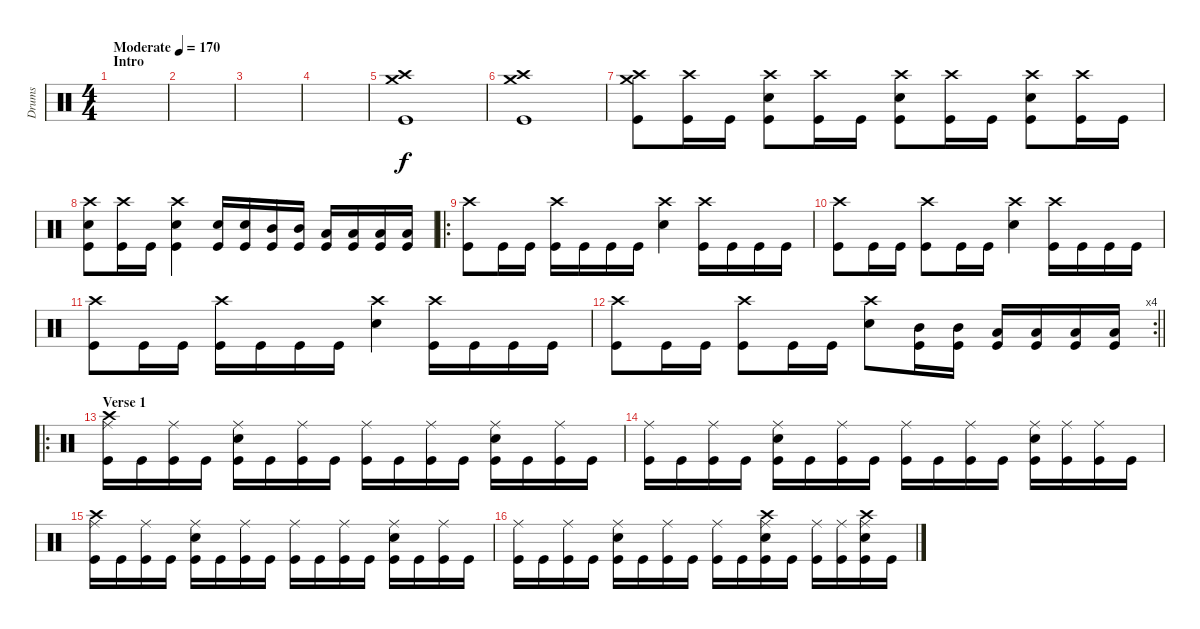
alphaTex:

\track ("Drums" "Drums") {instrument percussion}
\staff {score}
\articulation defaults
\ts (4 4)
\section ("" "Intro")
\tempo (170 "Moderate")
\clef neutral
\ks c
|
|
|
|
("Crash high (hit)" "Crash medium (hit)" "Kick (hit)").1 |
("Crash high (hit)" "Crash medium (hit)" "Kick (hit)").1 |
("Crash high (hit)" "Crash medium (hit)" "Kick (hit)").8 ("Crash high (hit)" "Kick (hit)").16 "Kick (hit)".16 ("Crash high (hit)" "Snare (hit) 2" "Kick (hit)").8 ("Crash high (hit)" "Kick (hit)").16 "Kick (hit)".16 ("Crash high (hit)" "Snare (hit) 2" "Kick (hit)").8 ("Crash high (hit)" "Kick (hit)").16 "Kick (hit)".16 ("Crash high (hit)" "Snare (hit) 2" "Kick (hit)").8 ("Crash high (hit)" "Kick (hit)").16 "Kick (hit)".16 |
("Crash high (hit)" "Snare (hit) 2" "Kick (hit)").8 ("Crash high (hit)" "Kick (hit)").16 "Kick (hit)".16 ("Crash high (hit)" "Snare (hit) 2" "Kick (hit)").4 ("Snare (hit) 2" "Kick (hit)").16 ("Snare (hit) 2" "Kick (hit)").16 ("Mid Tom (hit)" "Kick (hit)").16 ("Mid Tom (hit)" "Kick (hit)").16 ("Low Tom (hit)" "Kick (hit)").16 ("Low Tom (hit)" "Kick (hit)").16 ("Low Floor Tom (hit)" "Kick (hit)").16 ("Low Floor Tom (hit)" "Kick (hit)").16 |
\ro
("Crash high (hit)" "Kick (hit)").8 "Kick (hit)".16 "Kick (hit)".16 ("Crash high (hit)" "Kick (hit)").16 "Kick (hit)".16 "Kick (hit)".16 "Kick (hit)".16 ("Crash high (hit)" "Snare (hit) 2").4 ("Crash high (hit)" "Kick (hit)").16 "Kick (hit)".16 "Kick (hit)".16 "Kick (hit)".16 |
("Crash high (hit)" "Kick (hit)").8 "Kick (hit)".16 "Kick (hit)".16 ("Crash high (hit)" "Kick (hit)").8 "Kick (hit)".16 "Kick (hit)".16 ("Crash high (hit)" "Snare (hit) 2").4 ("Crash high (hit)" "Kick (hit)").16 "Kick (hit)".16 "Kick (hit)".16 "Kick (hit)".16 |
("Crash high (hit)" "Kick (hit)").8 "Kick (hit)".16 "Kick (hit)".16 ("Crash high (hit)" "Kick (hit)").16 "Kick (hit)".16 "Kick (hit)".16 "Kick (hit)".16 ("Crash high (hit)" "Snare (hit) 2").4 ("Crash high (hit)" "Kick (hit)").16 "Kick (hit)".16 "Kick (hit)".16 "Kick (hit)".16 |
\rc 4
\barLineRight lightlight
("Crash high (hit)" "Kick (hit)").8 "Kick (hit)".16 "Kick (hit)".16 ("Crash high (hit)" "Kick (hit)").8 "Kick (hit)".16 "Kick (hit)".16 ("Crash high (hit)" "Snare (hit) 2").8 ("Mid Tom (hit)" "Kick (hit)").16 ("Mid Tom (hit)" "Kick (hit)").16 ("Low Tom (hit)" "Kick (hit)").16 ("Low Tom (hit)" "Kick (hit)").16 ("Low Floor Tom (hit)" "Kick (hit)").16 ("Low Floor Tom (hit)" "Kick (hit)").16 |
\ro
\section ("" "Verse 1")
("Ride (middle)" "Crash high (hit)" "Kick (hit)").16 "Kick (hit)".16 ("Ride (middle)" "Kick (hit)").16 "Kick (hit)".16 ("Ride (middle)" "Snare (hit) 2" "Kick (hit)").16 "Kick (hit)".16 ("Ride (middle)" "Kick (hit)").16 "Kick (hit)".16 ("Ride (middle)" "Kick (hit)").16 "Kick (hit)".16 ("Ride (middle)" "Kick (hit)").16 "Kick (hit)".16 ("Ride (middle)" "Snare (hit) 2" "Kick (hit)").16 "Kick (hit)".16 ("Ride (middle)" "Kick (hit)").16 "Kick (hit)".16 |
("Ride (middle)" "Kick (hit)").16 "Kick (hit)".16 ("Ride (middle)" "Kick (hit)").16 "Kick (hit)".16 ("Ride (middle)" "Snare (hit) 2" "Kick (hit)").16 "Kick (hit)".16 ("Ride (middle)" "Kick (hit)").16 "Kick (hit)".16 ("Ride (middle)" "Kick (hit)").16 "Kick (hit)".16 ("Ride (middle)" "Kick (hit)").16 "Kick (hit)".16 ("Ride (middle)" "Snare (hit) 2" "Kick (hit)").16 ("Ride (middle)" "Kick (hit)").16 ("Ride (middle)" "Kick (hit)").16 "Kick (hit)".16 |
("Ride (middle)" "Crash high (hit)" "Kick (hit)").16 "Kick (hit)".16 ("Ride (middle)" "Kick (hit)").16 "Kick (hit)".16 ("Ride (middle)" "Snare (hit) 2" "Kick (hit)").16 "Kick (hit)".16 ("Ride (middle)" "Kick (hit)").16 "Kick (hit)".16 ("Ride (middle)" "Kick (hit)").16 "Kick (hit)".16 ("Ride (middle)" "Kick (hit)").16 "Kick (hit)".16 ("Ride (middle)" "Snare (hit) 2" "Kick (hit)").16 "Kick (hit)".16 ("Ride (middle)" "Kick (hit)").16 "Kick (hit)".16 |
("Ride (middle)" "Kick (hit)").16 "Kick (hit)".16 ("Ride (middle)" "Kick (hit)").16 "Kick (hit)".16 ("Ride (middle)" "Snare (hit) 2" "Kick (hit)").16 "Kick (hit)".16 ("Ride (middle)" "Kick (hit)").16 "Kick (hit)".16 ("Ride (middle)" "Kick (hit)").16 "Kick (hit)".16 ("Ride (middle)" "Crash high (hit)" "Snare (hit) 2" "Kick (hit)").16 "Kick (hit)".16 ("Ride (middle)" "Kick (hit)").16 ("Ride (middle)" "Kick (hit)").16 ("Ride (middle)" "Crash high (hit)" "Snare (hit) 2" "Kick (hit)").16 "Kick (hit)".16
